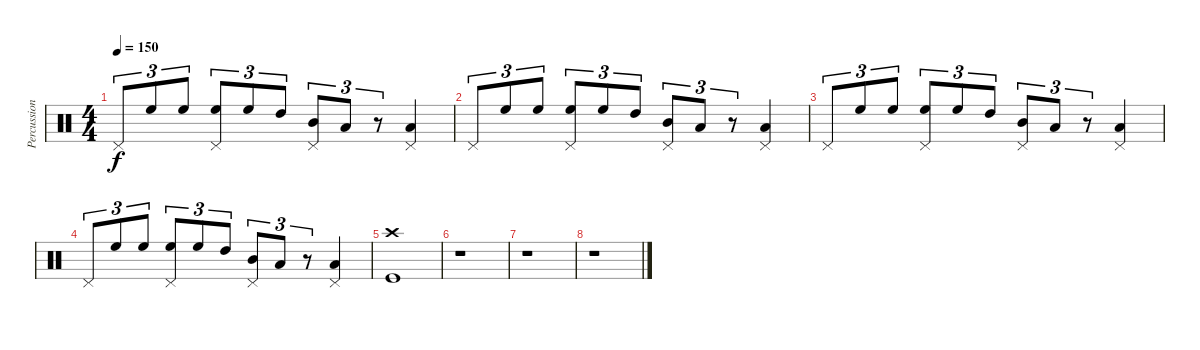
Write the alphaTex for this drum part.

\track ("Percussions" "Percussion") {instrument percussion}
\staff {score}
\articulation defaults
\ts (4 4)
\tempo 150
\clef neutral
\ks c "Pedal Hi-Hat (hit)".8{tu (3 2) dy f} "High Floor Tom (hit)".8{tu (3 2)} "High Floor Tom (hit)".8{tu (3 2)}
("High Floor Tom (hit)" "Pedal Hi-Hat (hit)").8{tu (3 2)} "High Floor Tom (hit)".8{tu (3 2)} "High Tom (hit)".8{tu (3 2)} ("Mid Tom (hit)" "Pedal Hi-Hat (hit)").8{tu (3 2)} "Low Tom (hit)".8{tu (3 2)} r.8{tu (3 2)} ("Low Tom (hit)" "Pedal Hi-Hat (hit)").4 |
"Pedal Hi-Hat (hit)".8{tu (3 2)} "High Floor Tom (hit)".8{tu (3 2)} "High Floor Tom (hit)".8{tu (3 2)} ("High Floor Tom (hit)" "Pedal Hi-Hat (hit)").8{tu (3 2)} "High Floor Tom (hit)".8{tu (3 2)} "High Tom (hit)".8{tu (3 2)} ("Mid Tom (hit)" "Pedal Hi-Hat (hit)").8{tu (3 2)} "Low Tom (hit)".8{tu (3 2)} r.8{tu (3 2)} ("Low Tom (hit)" "Pedal Hi-Hat (hit)").4 |
"Pedal Hi-Hat (hit)".8{tu (3 2)} "High Floor Tom (hit)".8{tu (3 2)} "High Floor Tom (hit)".8{tu (3 2)} ("High Floor Tom (hit)" "Pedal Hi-Hat (hit)").8{tu (3 2)} "High Floor Tom (hit)".8{tu (3 2)} "High Tom (hit)".8{tu (3 2)} ("Mid Tom (hit)" "Pedal Hi-Hat (hit)").8{tu (3 2)} "Low Tom (hit)".8{tu (3 2)} r.8{tu (3 2)} ("Low Tom (hit)" "Pedal Hi-Hat (hit)").4 |
"Pedal Hi-Hat (hit)".8{tu (3 2)} "High Floor Tom (hit)".8{tu (3 2)} "High Floor Tom (hit)".8{tu (3 2)} ("High Floor Tom (hit)" "Pedal Hi-Hat (hit)").8{tu (3 2)} "High Floor Tom (hit)".8{tu (3 2)} "High Tom (hit)".8{tu (3 2)} ("Mid Tom (hit)" "Pedal Hi-Hat (hit)").8{tu (3 2)} "Low Tom (hit)".8{tu (3 2)} r.8{tu (3 2)} ("Low Tom (hit)" "Pedal Hi-Hat (hit)").4 |
("Crash high (hit)" "Kick (hit)").1 |
r.1 |
r.1 |
r.1
